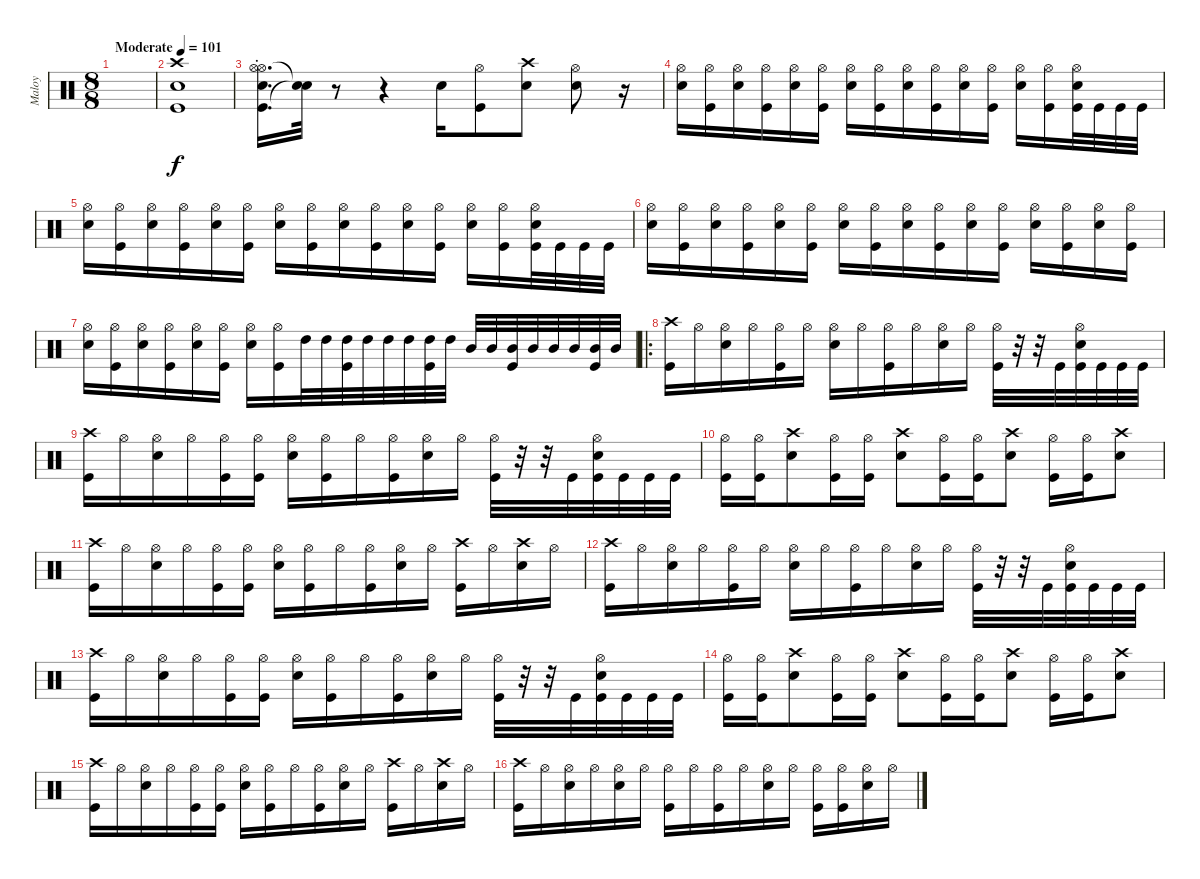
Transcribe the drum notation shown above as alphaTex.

\track ("Maloy" "Maloy") {instrument percussion}
\staff {score}
\articulation defaults
\ts (8 8)
\tempo (101 "Moderate")
\clef neutral
\ks c
|
("Kick (hit)" "Snare (hit) 2" "Crash high (hit)").1 |
("Hi-Hat (open)"{st} "Kick (hit)"{st} "Snare (hit) 2"{st} "Hi-Hat (open)"{st}).16{d} ("Snare (hit)"{t} "Snare (hit)"{t}).32 r.8 r.4 "Snare (hit) 2".16 ("Kick (hit)" "Hi-Hat (open)").8 ("Snare (hit) 2" "Crash high (hit)").8 ("Snare (hit) 2" "Hi-Hat (open)").8 r.16 |
("Hi-Hat (open)" "Snare (hit) 2").16 ("Hi-Hat (open)" "Kick (hit)").16 ("Hi-Hat (open)" "Snare (hit) 2").16 ("Hi-Hat (open)" "Kick (hit)").16 ("Hi-Hat (open)" "Snare (hit) 2").16 ("Hi-Hat (open)" "Kick (hit)").16 ("Hi-Hat (open)" "Snare (hit) 2").16 ("Hi-Hat (open)" "Kick (hit)").16 ("Hi-Hat (open)" "Snare (hit) 2").16 ("Hi-Hat (open)" "Kick (hit)").16 ("Hi-Hat (open)" "Snare (hit) 2").16 ("Hi-Hat (open)" "Kick (hit)").16 ("Hi-Hat (open)" "Snare (hit) 2").16 ("Hi-Hat (open)" "Kick (hit)").16 ("Hi-Hat (open)" "Snare (hit) 2" "Kick (hit)").32 "Kick (hit)".32 "Kick (hit)".32 "Kick (hit)".32 |
("Hi-Hat (open)" "Snare (hit) 2").16 ("Hi-Hat (open)" "Kick (hit)").16 ("Hi-Hat (open)" "Snare (hit) 2").16 ("Hi-Hat (open)" "Kick (hit)").16 ("Hi-Hat (open)" "Snare (hit) 2").16 ("Hi-Hat (open)" "Kick (hit)").16 ("Hi-Hat (open)" "Snare (hit) 2").16 ("Hi-Hat (open)" "Kick (hit)").16 ("Hi-Hat (open)" "Snare (hit) 2").16 ("Hi-Hat (open)" "Kick (hit)").16 ("Hi-Hat (open)" "Snare (hit) 2").16 ("Hi-Hat (open)" "Kick (hit)").16 ("Hi-Hat (open)" "Snare (hit) 2").16 ("Hi-Hat (open)" "Kick (hit)").16 ("Hi-Hat (open)" "Snare (hit) 2" "Kick (hit)").32 "Kick (hit)".32 "Kick (hit)".32 "Kick (hit)".32 |
("Hi-Hat (open)" "Snare (hit) 2").16 ("Hi-Hat (open)" "Kick (hit)").16 ("Hi-Hat (open)" "Snare (hit) 2").16 ("Hi-Hat (open)" "Kick (hit)").16 ("Hi-Hat (open)" "Snare (hit) 2").16 ("Hi-Hat (open)" "Kick (hit)").16 ("Hi-Hat (open)" "Snare (hit) 2").16 ("Hi-Hat (open)" "Kick (hit)").16 ("Hi-Hat (open)" "Snare (hit) 2").16 ("Hi-Hat (open)" "Kick (hit)").16 ("Hi-Hat (open)" "Snare (hit) 2").16 ("Hi-Hat (open)" "Kick (hit)").16 ("Hi-Hat (open)" "Snare (hit) 2").16 ("Hi-Hat (open)" "Kick (hit)").16 ("Hi-Hat (open)" "Snare (hit) 2").16 ("Hi-Hat (open)" "Kick (hit)").16 |
("Hi-Hat (open)" "Snare (hit) 2").16 ("Hi-Hat (open)" "Kick (hit)").16 ("Hi-Hat (open)" "Snare (hit) 2").16 ("Hi-Hat (open)" "Kick (hit)").16 ("Hi-Hat (open)" "Snare (hit) 2").16 ("Hi-Hat (open)" "Kick (hit)").16 ("Hi-Hat (open)" "Snare (hit) 2").16 ("Hi-Hat (open)" "Kick (hit)").16 "High Tom (hit)".32 "High Tom (hit)".32 ("High Tom (hit)" "Kick (hit)").32 "High Tom (hit)".32 "High Tom (hit)".32 "High Tom (hit)".32 ("High Tom (hit)" "Kick (hit)").32 "High Tom (hit)".32 "Mid Tom (hit)".32 "Mid Tom (hit)".32 ("Mid Tom (hit)" "Kick (hit)").32 "Mid Tom (hit)".32 "Mid Tom (hit)".32 "Mid Tom (hit)".32 ("Mid Tom (hit)" "Kick (hit)").32 "Mid Tom (hit)".32 |
\ro
("Crash high (hit)" "Kick (hit)").16 "Hi-Hat (open)".16 ("Hi-Hat (open)" "Snare (hit) 2").16 "Hi-Hat (open)".16 ("Hi-Hat (open)" "Kick (hit)").16 "Hi-Hat (open)".16 ("Hi-Hat (open)" "Snare (hit) 2").16 "Hi-Hat (open)".16 ("Hi-Hat (open)" "Kick (hit)").16 "Hi-Hat (open)".16 ("Hi-Hat (open)" "Snare (hit) 2").16 "Hi-Hat (open)".16 ("Hi-Hat (open)" "Kick (hit)").32 r.32 r.32 "Kick (hit)".32 ("Hi-Hat (open)" "Snare (hit) 2" "Kick (hit)").32 "Kick (hit)".32 "Kick (hit)".32 "Kick (hit)".32 |
("Crash high (hit)" "Kick (hit)").16 "Hi-Hat (open)".16 ("Hi-Hat (open)" "Snare (hit) 2").16 "Hi-Hat (open)".16 ("Hi-Hat (open)" "Kick (hit)").16 ("Hi-Hat (open)" "Kick (hit)").16 ("Hi-Hat (open)" "Snare (hit) 2").16 ("Hi-Hat (open)" "Kick (hit)").16 "Hi-Hat (open)".16 ("Hi-Hat (open)" "Kick (hit)").16 ("Hi-Hat (open)" "Snare (hit) 2").16 "Hi-Hat (open)".16 ("Hi-Hat (open)" "Kick (hit)").32 r.32 r.32 "Kick (hit)".32 ("Hi-Hat (open)" "Snare (hit) 2" "Kick (hit)").32 "Kick (hit)".32 "Kick (hit)".32 "Kick (hit)".32 |
("Hi-Hat (open)" "Kick (hit)").16 ("Hi-Hat (open)" "Kick (hit)").16 ("Crash high (hit)" "Snare (hit) 2").8 ("Hi-Hat (open)" "Kick (hit)").16 ("Hi-Hat (open)" "Kick (hit)").16 ("Crash high (hit)" "Snare (hit) 2").8 ("Hi-Hat (open)" "Kick (hit)").16 ("Hi-Hat (open)" "Kick (hit)").16 ("Crash high (hit)" "Snare (hit) 2").8 ("Hi-Hat (open)" "Kick (hit)").16 ("Hi-Hat (open)" "Kick (hit)").16 ("Crash high (hit)" "Snare (hit) 2").8 |
("Crash high (hit)" "Kick (hit)").16 "Hi-Hat (open)".16 ("Hi-Hat (open)" "Snare (hit) 2").16 "Hi-Hat (open)".16 ("Hi-Hat (open)" "Kick (hit)").16 ("Hi-Hat (open)" "Kick (hit)").16 ("Hi-Hat (open)" "Snare (hit) 2").16 ("Hi-Hat (open)" "Kick (hit)").16 "Hi-Hat (open)".16 ("Hi-Hat (open)" "Kick (hit)").16 ("Hi-Hat (open)" "Snare (hit) 2").16 "Hi-Hat (open)".16 ("Crash high (hit)" "Kick (hit)").16 "Hi-Hat (open)".16 ("Crash high (hit)" "Snare (hit) 2").16 "Hi-Hat (open)".16 |
("Crash high (hit)" "Kick (hit)").16 "Hi-Hat (open)".16 ("Hi-Hat (open)" "Snare (hit) 2").16 "Hi-Hat (open)".16 ("Hi-Hat (open)" "Kick (hit)").16 "Hi-Hat (open)".16 ("Hi-Hat (open)" "Snare (hit) 2").16 "Hi-Hat (open)".16 ("Hi-Hat (open)" "Kick (hit)").16 "Hi-Hat (open)".16 ("Hi-Hat (open)" "Snare (hit) 2").16 "Hi-Hat (open)".16 ("Hi-Hat (open)" "Kick (hit)").32 r.32 r.32 "Kick (hit)".32 ("Hi-Hat (open)" "Snare (hit) 2" "Kick (hit)").32 "Kick (hit)".32 "Kick (hit)".32 "Kick (hit)".32 |
("Crash high (hit)" "Kick (hit)").16 "Hi-Hat (open)".16 ("Hi-Hat (open)" "Snare (hit) 2").16 "Hi-Hat (open)".16 ("Hi-Hat (open)" "Kick (hit)").16 ("Hi-Hat (open)" "Kick (hit)").16 ("Hi-Hat (open)" "Snare (hit) 2").16 ("Hi-Hat (open)" "Kick (hit)").16 "Hi-Hat (open)".16 ("Hi-Hat (open)" "Kick (hit)").16 ("Hi-Hat (open)" "Snare (hit) 2").16 "Hi-Hat (open)".16 ("Hi-Hat (open)" "Kick (hit)").32 r.32 r.32 "Kick (hit)".32 ("Hi-Hat (open)" "Snare (hit) 2" "Kick (hit)").32 "Kick (hit)".32 "Kick (hit)".32 "Kick (hit)".32 |
("Hi-Hat (open)" "Kick (hit)").16 ("Hi-Hat (open)" "Kick (hit)").16 ("Crash high (hit)" "Snare (hit) 2").8 ("Hi-Hat (open)" "Kick (hit)").16 ("Hi-Hat (open)" "Kick (hit)").16 ("Crash high (hit)" "Snare (hit) 2").8 ("Hi-Hat (open)" "Kick (hit)").16 ("Hi-Hat (open)" "Kick (hit)").16 ("Crash high (hit)" "Snare (hit) 2").8 ("Hi-Hat (open)" "Kick (hit)").16 ("Hi-Hat (open)" "Kick (hit)").16 ("Crash high (hit)" "Snare (hit) 2").8 |
("Crash high (hit)" "Kick (hit)").16 "Hi-Hat (open)".16 ("Hi-Hat (open)" "Snare (hit) 2").16 "Hi-Hat (open)".16 ("Hi-Hat (open)" "Kick (hit)").16 ("Hi-Hat (open)" "Kick (hit)").16 ("Hi-Hat (open)" "Snare (hit) 2").16 ("Hi-Hat (open)" "Kick (hit)").16 "Hi-Hat (open)".16 ("Hi-Hat (open)" "Kick (hit)").16 ("Hi-Hat (open)" "Snare (hit) 2").16 "Hi-Hat (open)".16 ("Crash high (hit)" "Kick (hit)").16 "Hi-Hat (open)".16 ("Crash high (hit)" "Snare (hit) 2").16 "Hi-Hat (open)".16 |
("Crash high (hit)" "Kick (hit)").16 "Hi-Hat (open)".16 ("Hi-Hat (open)" "Snare (hit) 2").16 "Hi-Hat (open)".16 ("Hi-Hat (open)" "Snare (hit) 2").16 "Hi-Hat (open)".16 ("Hi-Hat (open)" "Kick (hit)").16 "Hi-Hat (open)".16 ("Hi-Hat (open)" "Kick (hit)").16 "Hi-Hat (open)".16 ("Hi-Hat (open)" "Snare (hit) 2").16 "Hi-Hat (open)".16 ("Hi-Hat (open)" "Kick (hit)").16 ("Hi-Hat (open)" "Kick (hit)").16 ("Hi-Hat (open)" "Snare (hit) 2").16 "Hi-Hat (open)".16
